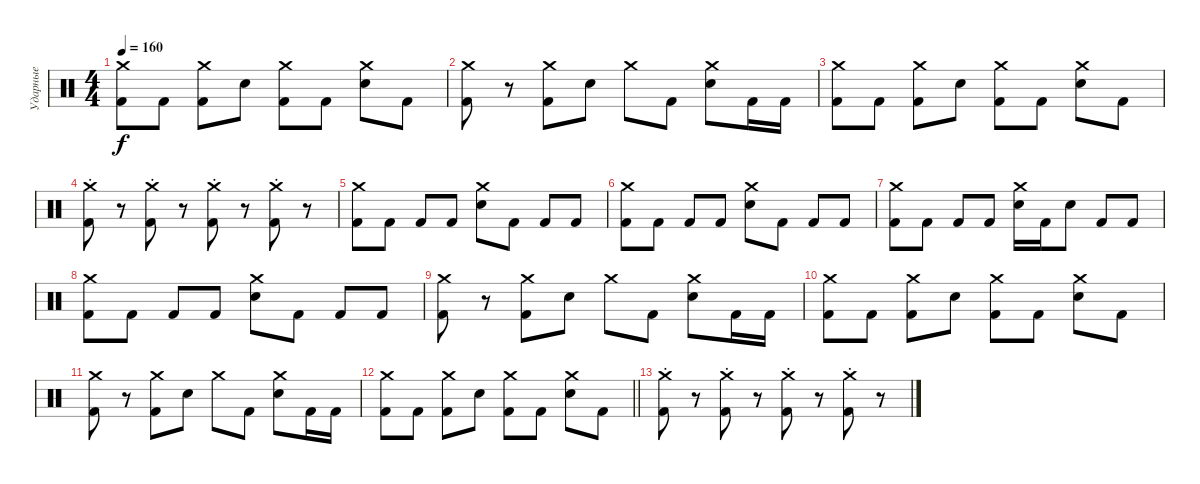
\track ("Ударные" "Ударные") {instrument percussion}
\staff {score}
\articulation defaults
\ts (4 4)
\tempo 160
\clef neutral
\ks c
("Kick (hit) 2" "Crash medium (hit)").8{dy f} "Kick (hit) 2".8 ("Kick (hit) 2" "Crash medium (hit)").8 "Snare (hit) 2".8 ("Kick (hit) 2" "Crash medium (hit)").8 "Kick (hit) 2".8 ("Snare (hit) 2" "Crash medium (hit)").8 "Kick (hit) 2".8 |
("Kick (hit) 2" "Crash medium (hit)").8 r.8 ("Kick (hit) 2" "Crash medium (hit)").8 "Snare (hit) 2".8 "Crash medium (hit)".8 "Kick (hit) 2".8 ("Snare (hit) 2" "Crash medium (hit)").8 "Kick (hit) 2".16 "Kick (hit) 2".16 |
("Kick (hit) 2" "Crash medium (hit)").8 "Kick (hit) 2".8 ("Kick (hit) 2" "Crash medium (hit)").8 "Snare (hit) 2".8 ("Kick (hit) 2" "Crash medium (hit)").8 "Kick (hit) 2".8 ("Snare (hit) 2" "Crash medium (hit)").8 "Kick (hit) 2".8 |
("Crash medium (hit)"{st} "Kick (hit) 2"{st}).8 r.8 ("Crash medium (hit)"{st} "Kick (hit) 2"{st}).8 r.8 ("Crash medium (hit)"{st} "Kick (hit) 2"{st}).8 r.8 ("Crash medium (hit)"{st} "Kick (hit) 2"{st}).8 r.8 |
("Kick (hit) 2" "Crash medium (hit)").8 "Kick (hit) 2".8 "Kick (hit) 2".8 "Kick (hit) 2".8 ("Snare (hit) 2" "Crash medium (hit)").8 "Kick (hit) 2".8 "Kick (hit) 2".8 "Kick (hit) 2".8 |
("Kick (hit) 2" "Crash medium (hit)").8 "Kick (hit) 2".8 "Kick (hit) 2".8 "Kick (hit) 2".8 ("Snare (hit) 2" "Crash medium (hit)").8 "Kick (hit) 2".8 "Kick (hit) 2".8 "Kick (hit) 2".8 |
("Kick (hit) 2" "Crash medium (hit)").8 "Kick (hit) 2".8 "Kick (hit) 2".8 "Kick (hit) 2".8 ("Snare (hit) 2" "Crash medium (hit)").16 "Kick (hit) 2".16 "Snare (hit) 2".8 "Kick (hit) 2".8 "Kick (hit) 2".8 |
("Kick (hit) 2" "Crash medium (hit)").8 "Kick (hit) 2".8 "Kick (hit) 2".8 "Kick (hit) 2".8 ("Snare (hit) 2" "Crash medium (hit)").8 "Kick (hit) 2".8 "Kick (hit) 2".8 "Kick (hit) 2".8 |
("Kick (hit) 2" "Crash medium (hit)").8 r.8 ("Kick (hit) 2" "Crash medium (hit)").8 "Snare (hit) 2".8 "Crash medium (hit)".8 "Kick (hit) 2".8 ("Snare (hit) 2" "Crash medium (hit)").8 "Kick (hit) 2".16 "Kick (hit) 2".16 |
("Kick (hit) 2" "Crash medium (hit)").8 "Kick (hit) 2".8 ("Kick (hit) 2" "Crash medium (hit)").8 "Snare (hit) 2".8 ("Kick (hit) 2" "Crash medium (hit)").8 "Kick (hit) 2".8 ("Snare (hit) 2" "Crash medium (hit)").8 "Kick (hit) 2".8 |
("Kick (hit) 2" "Crash medium (hit)").8 r.8 ("Kick (hit) 2" "Crash medium (hit)").8 "Snare (hit) 2".8 "Crash medium (hit)".8 "Kick (hit) 2".8 ("Snare (hit) 2" "Crash medium (hit)").8 "Kick (hit) 2".16 "Kick (hit) 2".16 |
\barLineRight lightlight
("Kick (hit) 2" "Crash medium (hit)").8 "Kick (hit) 2".8 ("Kick (hit) 2" "Crash medium (hit)").8 "Snare (hit) 2".8 ("Kick (hit) 2" "Crash medium (hit)").8 "Kick (hit) 2".8 ("Snare (hit) 2" "Crash medium (hit)").8 "Kick (hit) 2".8 |
("Crash medium (hit)"{st} "Kick (hit) 2"{st}).8 r.8 ("Crash medium (hit)"{st} "Kick (hit) 2"{st}).8 r.8 ("Crash medium (hit)"{st} "Kick (hit) 2"{st}).8 r.8 ("Crash medium (hit)"{st} "Kick (hit) 2"{st}).8 r.8
